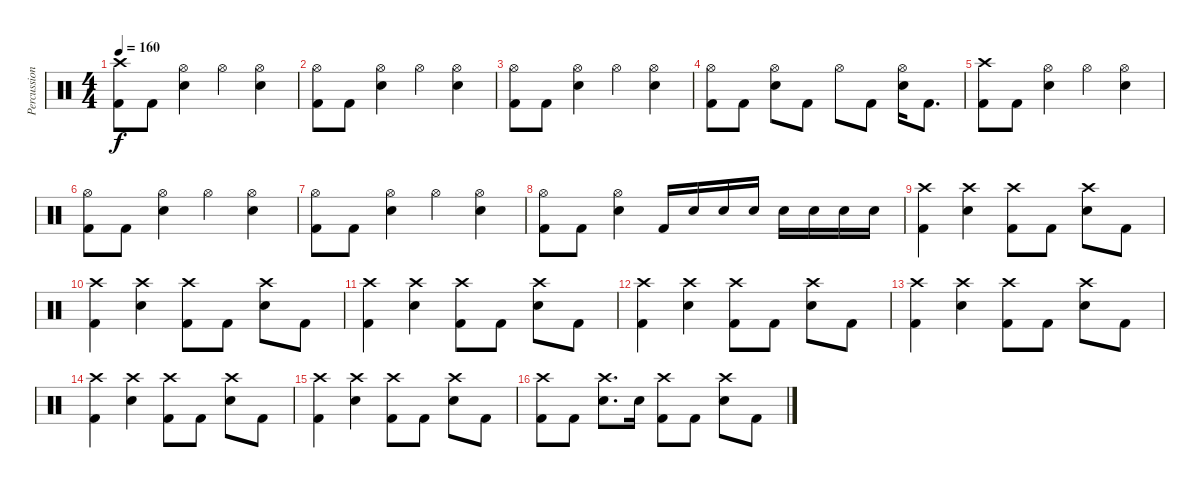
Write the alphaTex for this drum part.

\track ("Percussion" "Percussion") {instrument percussion}
\staff {score}
\articulation defaults
\ts (4 4)
\tempo 160
\clef neutral
\ks c
("Crash high (hit)" "Kick (hit) 2").8{dy f} "Kick (hit) 2".8 ("Hi-Hat (open)" "Electric Snare (hit)").4 "Hi-Hat (open)".4 ("Hi-Hat (open)" "Electric Snare (hit)").4 |
("Hi-Hat (open)" "Kick (hit) 2").8 "Kick (hit) 2".8 ("Hi-Hat (open)" "Electric Snare (hit)").4 "Hi-Hat (open)".4 ("Hi-Hat (open)" "Electric Snare (hit)").4 |
("Hi-Hat (open)" "Kick (hit) 2").8 "Kick (hit) 2".8 ("Hi-Hat (open)" "Electric Snare (hit)").4 "Hi-Hat (open)".4 ("Hi-Hat (open)" "Electric Snare (hit)").4 |
("Hi-Hat (open)" "Kick (hit) 2").8 "Kick (hit) 2".8 ("Hi-Hat (open)" "Electric Snare (hit)").8 "Kick (hit) 2".8 "Hi-Hat (open)".8 "Kick (hit) 2".8 ("Hi-Hat (open)" "Electric Snare (hit)").16 "Kick (hit) 2".8{d} |
("Crash high (hit)" "Kick (hit) 2").8 "Kick (hit) 2".8 ("Hi-Hat (open)" "Electric Snare (hit)").4 "Hi-Hat (open)".4 ("Hi-Hat (open)" "Electric Snare (hit)").4 |
("Hi-Hat (open)" "Kick (hit) 2").8 "Kick (hit) 2".8 ("Hi-Hat (open)" "Electric Snare (hit)").4 "Hi-Hat (open)".4 ("Hi-Hat (open)" "Electric Snare (hit)").4 |
("Hi-Hat (open)" "Kick (hit) 2").8 "Kick (hit) 2".8 ("Hi-Hat (open)" "Electric Snare (hit)").4 "Hi-Hat (open)".4 ("Hi-Hat (open)" "Electric Snare (hit)").4 |
("Hi-Hat (open)" "Kick (hit) 2").8 "Kick (hit) 2".8 ("Hi-Hat (open)" "Electric Snare (hit)").4 "Kick (hit) 2".16 "Electric Snare (hit)".16 "Electric Snare (hit)".16 "Electric Snare (hit)".16 "Electric Snare (hit)".16 "Electric Snare (hit)".16 "Electric Snare (hit)".16 "Electric Snare (hit)".16 |
("Crash high (hit)" "Kick (hit) 2").4 ("Crash high (hit)" "Electric Snare (hit)").4 ("Crash high (hit)" "Kick (hit) 2").8 "Kick (hit) 2".8 ("Crash high (hit)" "Electric Snare (hit)").8 "Kick (hit) 2".8 |
("Crash high (hit)" "Kick (hit) 2").4 ("Crash high (hit)" "Electric Snare (hit)").4 ("Crash high (hit)" "Kick (hit) 2").8 "Kick (hit) 2".8 ("Crash high (hit)" "Electric Snare (hit)").8 "Kick (hit) 2".8 |
("Crash high (hit)" "Kick (hit) 2").4 ("Crash high (hit)" "Electric Snare (hit)").4 ("Crash high (hit)" "Kick (hit) 2").8 "Kick (hit) 2".8 ("Crash high (hit)" "Electric Snare (hit)").8 "Kick (hit) 2".8 |
("Crash high (hit)" "Kick (hit) 2").4 ("Crash high (hit)" "Electric Snare (hit)").4 ("Crash high (hit)" "Kick (hit) 2").8 "Kick (hit) 2".8 ("Crash high (hit)" "Electric Snare (hit)").8 "Kick (hit) 2".8 |
("Crash high (hit)" "Kick (hit) 2").4 ("Crash high (hit)" "Electric Snare (hit)").4 ("Crash high (hit)" "Kick (hit) 2").8 "Kick (hit) 2".8 ("Crash high (hit)" "Electric Snare (hit)").8 "Kick (hit) 2".8 |
("Crash high (hit)" "Kick (hit) 2").4 ("Crash high (hit)" "Electric Snare (hit)").4 ("Crash high (hit)" "Kick (hit) 2").8 "Kick (hit) 2".8 ("Crash high (hit)" "Electric Snare (hit)").8 "Kick (hit) 2".8 |
("Crash high (hit)" "Kick (hit) 2").4 ("Crash high (hit)" "Electric Snare (hit)").4 ("Crash high (hit)" "Kick (hit) 2").8 "Kick (hit) 2".8 ("Crash high (hit)" "Electric Snare (hit)").8 "Kick (hit) 2".8 |
("Crash high (hit)" "Kick (hit) 2").8 "Kick (hit) 2".8 ("Crash high (hit)" "Electric Snare (hit)").8{d} "Electric Snare (hit)".16 ("Crash high (hit)" "Kick (hit) 2").8 "Kick (hit) 2".8 ("Crash high (hit)" "Electric Snare (hit)").8 "Kick (hit) 2".8
